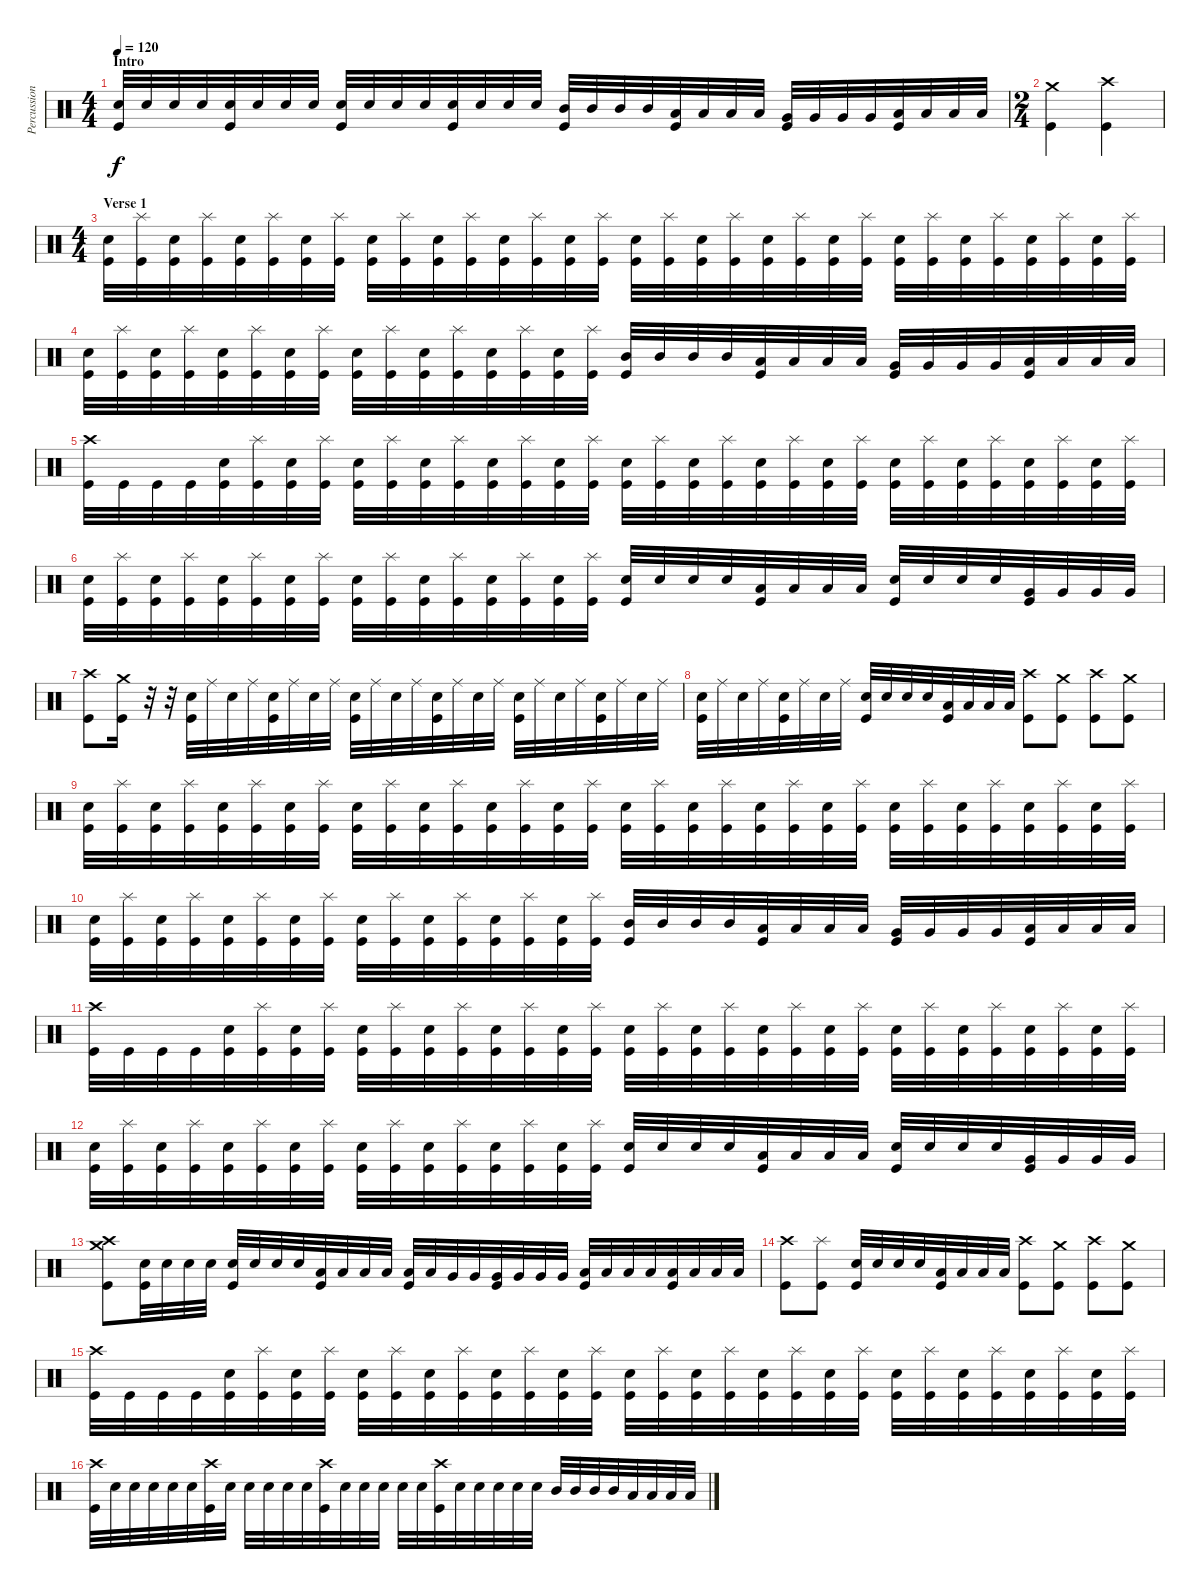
\track ("Percussion" "Percussion") {instrument percussion}
\staff {score}
\articulation defaults
\ts (4 4)
\section ("" "Intro")
\tempo 120
\clef neutral
\ks c
("Electric Snare (hit)" "Kick (hit)").32{dy f} "Electric Snare (hit)".32 "Electric Snare (hit)".32 "Electric Snare (hit)".32 ("Electric Snare (hit)" "Kick (hit)").32 "Electric Snare (hit)".32 "Electric Snare (hit)".32 "Electric Snare (hit)".32 ("Electric Snare (hit)" "Kick (hit)").32 "Electric Snare (hit)".32 "Electric Snare (hit)".32 "Electric Snare (hit)".32 ("Electric Snare (hit)" "Kick (hit)").32 "Electric Snare (hit)".32 "Electric Snare (hit)".32 "Electric Snare (hit)".32 ("Mid Tom (hit)" "Kick (hit)").32 "Mid Tom (hit)".32 "Mid Tom (hit)".32 "Mid Tom (hit)".32 ("Low Tom (hit)" "Kick (hit)").32 "Low Tom (hit)".32 "Low Tom (hit)".32 "Low Tom (hit)".32 ("Very Low Tom (hit)" "Kick (hit)").32 "Very Low Tom (hit)".32 "Very Low Tom (hit)".32 "Very Low Tom (hit)".32 ("Low Floor Tom (hit)" "Kick (hit)").32 "Low Floor Tom (hit)".32 "Low Floor Tom (hit)".32 "Low Floor Tom (hit)".32 |
\ts (2 4)
("Crash medium (hit)" "Kick (hit)").4 ("Crash high (hit)" "Kick (hit)").4 |
\ts (4 4)
\section ("" "Verse 1")
("Electric Snare (hit)" "Kick (hit)").32 ("Splash (hit)" "Kick (hit)").32 ("Electric Snare (hit)" "Kick (hit)").32 ("Splash (hit)" "Kick (hit)").32 ("Electric Snare (hit)" "Kick (hit)").32 ("Splash (hit)" "Kick (hit)").32 ("Electric Snare (hit)" "Kick (hit)").32 ("Splash (hit)" "Kick (hit)").32 ("Electric Snare (hit)" "Kick (hit)").32 ("Splash (hit)" "Kick (hit)").32 ("Electric Snare (hit)" "Kick (hit)").32 ("Splash (hit)" "Kick (hit)").32 ("Electric Snare (hit)" "Kick (hit)").32 ("Splash (hit)" "Kick (hit)").32 ("Electric Snare (hit)" "Kick (hit)").32 ("Splash (hit)" "Kick (hit)").32 ("Electric Snare (hit)" "Kick (hit)").32 ("Splash (hit)" "Kick (hit)").32 ("Electric Snare (hit)" "Kick (hit)").32 ("Splash (hit)" "Kick (hit)").32 ("Electric Snare (hit)" "Kick (hit)").32 ("Splash (hit)" "Kick (hit)").32 ("Electric Snare (hit)" "Kick (hit)").32 ("Splash (hit)" "Kick (hit)").32 ("Electric Snare (hit)" "Kick (hit)").32 ("Splash (hit)" "Kick (hit)").32 ("Electric Snare (hit)" "Kick (hit)").32 ("Splash (hit)" "Kick (hit)").32 ("Electric Snare (hit)" "Kick (hit)").32 ("Splash (hit)" "Kick (hit)").32 ("Electric Snare (hit)" "Kick (hit)").32 ("Splash (hit)" "Kick (hit)").32 |
("Electric Snare (hit)" "Kick (hit)").32 ("Splash (hit)" "Kick (hit)").32 ("Electric Snare (hit)" "Kick (hit)").32 ("Splash (hit)" "Kick (hit)").32 ("Electric Snare (hit)" "Kick (hit)").32 ("Splash (hit)" "Kick (hit)").32 ("Electric Snare (hit)" "Kick (hit)").32 ("Splash (hit)" "Kick (hit)").32 ("Electric Snare (hit)" "Kick (hit)").32 ("Splash (hit)" "Kick (hit)").32 ("Electric Snare (hit)" "Kick (hit)").32 ("Splash (hit)" "Kick (hit)").32 ("Electric Snare (hit)" "Kick (hit)").32 ("Splash (hit)" "Kick (hit)").32 ("Electric Snare (hit)" "Kick (hit)").32 ("Splash (hit)" "Kick (hit)").32 ("Mid Tom (hit)" "Kick (hit)").32 "Mid Tom (hit)".32 "Mid Tom (hit)".32 "Mid Tom (hit)".32 ("Low Tom (hit)" "Kick (hit)").32 "Low Tom (hit)".32 "Low Tom (hit)".32 "Low Tom (hit)".32 ("Very Low Tom (hit)" "Kick (hit)").32 "Very Low Tom (hit)".32 "Very Low Tom (hit)".32 "Very Low Tom (hit)".32 ("Low Floor Tom (hit)" "Kick (hit)").32 "Low Floor Tom (hit)".32 "Low Floor Tom (hit)".32 "Low Floor Tom (hit)".32 |
("Crash high (hit)" "Kick (hit)").32 "Kick (hit)".32 "Kick (hit)".32 "Kick (hit)".32 ("Electric Snare (hit)" "Kick (hit)").32 ("Splash (hit)" "Kick (hit)").32 ("Electric Snare (hit)" "Kick (hit)").32 ("Splash (hit)" "Kick (hit)").32 ("Electric Snare (hit)" "Kick (hit)").32 ("Splash (hit)" "Kick (hit)").32 ("Electric Snare (hit)" "Kick (hit)").32 ("Splash (hit)" "Kick (hit)").32 ("Electric Snare (hit)" "Kick (hit)").32 ("Splash (hit)" "Kick (hit)").32 ("Electric Snare (hit)" "Kick (hit)").32 ("Splash (hit)" "Kick (hit)").32 ("Electric Snare (hit)" "Kick (hit)").32 ("Splash (hit)" "Kick (hit)").32 ("Electric Snare (hit)" "Kick (hit)").32 ("Splash (hit)" "Kick (hit)").32 ("Electric Snare (hit)" "Kick (hit)").32 ("Splash (hit)" "Kick (hit)").32 ("Electric Snare (hit)" "Kick (hit)").32 ("Splash (hit)" "Kick (hit)").32 ("Electric Snare (hit)" "Kick (hit)").32 ("Splash (hit)" "Kick (hit)").32 ("Electric Snare (hit)" "Kick (hit)").32 ("Splash (hit)" "Kick (hit)").32 ("Electric Snare (hit)" "Kick (hit)").32 ("Splash (hit)" "Kick (hit)").32 ("Electric Snare (hit)" "Kick (hit)").32 ("Splash (hit)" "Kick (hit)").32 |
("Electric Snare (hit)" "Kick (hit)").32 ("Splash (hit)" "Kick (hit)").32 ("Electric Snare (hit)" "Kick (hit)").32 ("Splash (hit)" "Kick (hit)").32 ("Electric Snare (hit)" "Kick (hit)").32 ("Splash (hit)" "Kick (hit)").32 ("Electric Snare (hit)" "Kick (hit)").32 ("Splash (hit)" "Kick (hit)").32 ("Electric Snare (hit)" "Kick (hit)").32 ("Splash (hit)" "Kick (hit)").32 ("Electric Snare (hit)" "Kick (hit)").32 ("Splash (hit)" "Kick (hit)").32 ("Electric Snare (hit)" "Kick (hit)").32 ("Splash (hit)" "Kick (hit)").32 ("Electric Snare (hit)" "Kick (hit)").32 ("Splash (hit)" "Kick (hit)").32 ("Electric Snare (hit)" "Kick (hit)").32 "Electric Snare (hit)".32 "Electric Snare (hit)".32 "Electric Snare (hit)".32 ("Low Tom (hit)" "Kick (hit)").32 "Low Tom (hit)".32 "Low Tom (hit)".32 "Low Tom (hit)".32 ("Electric Snare (hit)" "Kick (hit)").32 "Electric Snare (hit)".32 "Electric Snare (hit)".32 "Electric Snare (hit)".32 ("Very Low Tom (hit)" "Kick (hit)").32 "Very Low Tom (hit)".32 "Very Low Tom (hit)".32 "Very Low Tom (hit)".32 |
("Crash high (hit)" "Kick (hit)").8 ("Crash medium (hit)" "Kick (hit)").16 r.32 r.32 ("Electric Snare (hit)" "Kick (hit)").32 "Ride (middle)".32 "Electric Snare (hit)".32 "Ride (middle)".32 ("Electric Snare (hit)" "Kick (hit)").32 "Ride (middle)".32 "Electric Snare (hit)".32 "Ride (middle)".32 ("Electric Snare (hit)" "Kick (hit)").32 "Ride (middle)".32 "Electric Snare (hit)".32 "Ride (middle)".32 ("Electric Snare (hit)" "Kick (hit)").32 "Ride (middle)".32 "Electric Snare (hit)".32 "Ride (middle)".32 ("Electric Snare (hit)" "Kick (hit)").32 "Ride (middle)".32 "Electric Snare (hit)".32 "Ride (middle)".32 ("Electric Snare (hit)" "Kick (hit)").32 "Ride (middle)".32 "Electric Snare (hit)".32 "Ride (middle)".32 |
("Electric Snare (hit)" "Kick (hit)").32 "Ride (middle)".32 "Electric Snare (hit)".32 "Ride (middle)".32 ("Electric Snare (hit)" "Kick (hit)").32 "Ride (middle)".32 "Electric Snare (hit)".32 "Ride (middle)".32 ("Electric Snare (hit)" "Kick (hit)").32 "Electric Snare (hit)".32 "Electric Snare (hit)".32 "Electric Snare (hit)".32 ("Low Tom (hit)" "Kick (hit)").32 "Low Tom (hit)".32 "Low Tom (hit)".32 "Low Tom (hit)".32 ("Crash high (hit)" "Kick (hit)").8 ("Crash medium (hit)" "Kick (hit)").8 ("Crash high (hit)" "Kick (hit)").8 ("Crash medium (hit)" "Kick (hit)").8 |
("Electric Snare (hit)" "Kick (hit)").32 ("Splash (hit)" "Kick (hit)").32 ("Electric Snare (hit)" "Kick (hit)").32 ("Splash (hit)" "Kick (hit)").32 ("Electric Snare (hit)" "Kick (hit)").32 ("Splash (hit)" "Kick (hit)").32 ("Electric Snare (hit)" "Kick (hit)").32 ("Splash (hit)" "Kick (hit)").32 ("Electric Snare (hit)" "Kick (hit)").32 ("Splash (hit)" "Kick (hit)").32 ("Electric Snare (hit)" "Kick (hit)").32 ("Splash (hit)" "Kick (hit)").32 ("Electric Snare (hit)" "Kick (hit)").32 ("Splash (hit)" "Kick (hit)").32 ("Electric Snare (hit)" "Kick (hit)").32 ("Splash (hit)" "Kick (hit)").32 ("Electric Snare (hit)" "Kick (hit)").32 ("Splash (hit)" "Kick (hit)").32 ("Electric Snare (hit)" "Kick (hit)").32 ("Splash (hit)" "Kick (hit)").32 ("Electric Snare (hit)" "Kick (hit)").32 ("Splash (hit)" "Kick (hit)").32 ("Electric Snare (hit)" "Kick (hit)").32 ("Splash (hit)" "Kick (hit)").32 ("Electric Snare (hit)" "Kick (hit)").32 ("Splash (hit)" "Kick (hit)").32 ("Electric Snare (hit)" "Kick (hit)").32 ("Splash (hit)" "Kick (hit)").32 ("Electric Snare (hit)" "Kick (hit)").32 ("Splash (hit)" "Kick (hit)").32 ("Electric Snare (hit)" "Kick (hit)").32 ("Splash (hit)" "Kick (hit)").32 |
("Electric Snare (hit)" "Kick (hit)").32 ("Splash (hit)" "Kick (hit)").32 ("Electric Snare (hit)" "Kick (hit)").32 ("Splash (hit)" "Kick (hit)").32 ("Electric Snare (hit)" "Kick (hit)").32 ("Splash (hit)" "Kick (hit)").32 ("Electric Snare (hit)" "Kick (hit)").32 ("Splash (hit)" "Kick (hit)").32 ("Electric Snare (hit)" "Kick (hit)").32 ("Splash (hit)" "Kick (hit)").32 ("Electric Snare (hit)" "Kick (hit)").32 ("Splash (hit)" "Kick (hit)").32 ("Electric Snare (hit)" "Kick (hit)").32 ("Splash (hit)" "Kick (hit)").32 ("Electric Snare (hit)" "Kick (hit)").32 ("Splash (hit)" "Kick (hit)").32 ("Mid Tom (hit)" "Kick (hit)").32 "Mid Tom (hit)".32 "Mid Tom (hit)".32 "Mid Tom (hit)".32 ("Low Tom (hit)" "Kick (hit)").32 "Low Tom (hit)".32 "Low Tom (hit)".32 "Low Tom (hit)".32 ("Very Low Tom (hit)" "Kick (hit)").32 "Very Low Tom (hit)".32 "Very Low Tom (hit)".32 "Very Low Tom (hit)".32 ("Low Floor Tom (hit)" "Kick (hit)").32 "Low Floor Tom (hit)".32 "Low Floor Tom (hit)".32 "Low Floor Tom (hit)".32 |
("Crash high (hit)" "Kick (hit)").32 "Kick (hit)".32 "Kick (hit)".32 "Kick (hit)".32 ("Electric Snare (hit)" "Kick (hit)").32 ("Splash (hit)" "Kick (hit)").32 ("Electric Snare (hit)" "Kick (hit)").32 ("Splash (hit)" "Kick (hit)").32 ("Electric Snare (hit)" "Kick (hit)").32 ("Splash (hit)" "Kick (hit)").32 ("Electric Snare (hit)" "Kick (hit)").32 ("Splash (hit)" "Kick (hit)").32 ("Electric Snare (hit)" "Kick (hit)").32 ("Splash (hit)" "Kick (hit)").32 ("Electric Snare (hit)" "Kick (hit)").32 ("Splash (hit)" "Kick (hit)").32 ("Electric Snare (hit)" "Kick (hit)").32 ("Splash (hit)" "Kick (hit)").32 ("Electric Snare (hit)" "Kick (hit)").32 ("Splash (hit)" "Kick (hit)").32 ("Electric Snare (hit)" "Kick (hit)").32 ("Splash (hit)" "Kick (hit)").32 ("Electric Snare (hit)" "Kick (hit)").32 ("Splash (hit)" "Kick (hit)").32 ("Electric Snare (hit)" "Kick (hit)").32 ("Splash (hit)" "Kick (hit)").32 ("Electric Snare (hit)" "Kick (hit)").32 ("Splash (hit)" "Kick (hit)").32 ("Electric Snare (hit)" "Kick (hit)").32 ("Splash (hit)" "Kick (hit)").32 ("Electric Snare (hit)" "Kick (hit)").32 ("Splash (hit)" "Kick (hit)").32 |
("Electric Snare (hit)" "Kick (hit)").32 ("Splash (hit)" "Kick (hit)").32 ("Electric Snare (hit)" "Kick (hit)").32 ("Splash (hit)" "Kick (hit)").32 ("Electric Snare (hit)" "Kick (hit)").32 ("Splash (hit)" "Kick (hit)").32 ("Electric Snare (hit)" "Kick (hit)").32 ("Splash (hit)" "Kick (hit)").32 ("Electric Snare (hit)" "Kick (hit)").32 ("Splash (hit)" "Kick (hit)").32 ("Electric Snare (hit)" "Kick (hit)").32 ("Splash (hit)" "Kick (hit)").32 ("Electric Snare (hit)" "Kick (hit)").32 ("Splash (hit)" "Kick (hit)").32 ("Electric Snare (hit)" "Kick (hit)").32 ("Splash (hit)" "Kick (hit)").32 ("Electric Snare (hit)" "Kick (hit)").32 "Electric Snare (hit)".32 "Electric Snare (hit)".32 "Electric Snare (hit)".32 ("Low Tom (hit)" "Kick (hit)").32 "Low Tom (hit)".32 "Low Tom (hit)".32 "Low Tom (hit)".32 ("Electric Snare (hit)" "Kick (hit)").32 "Electric Snare (hit)".32 "Electric Snare (hit)".32 "Electric Snare (hit)".32 ("Very Low Tom (hit)" "Kick (hit)").32 "Very Low Tom (hit)".32 "Very Low Tom (hit)".32 "Very Low Tom (hit)".32 |
("Crash high (hit)" "Crash medium (hit)" "Kick (hit)").8 ("Electric Snare (hit)" "Kick (hit)").32 "Electric Snare (hit)".32 "Electric Snare (hit)".32 "Electric Snare (hit)".32 ("Electric Snare (hit)" "Kick (hit)").32 "Electric Snare (hit)".32 "Electric Snare (hit)".32 "Electric Snare (hit)".32 ("Low Tom (hit)" "Kick (hit)").32 "Low Tom (hit)".32 "Low Tom (hit)".32 "Low Tom (hit)".32 ("Low Tom (hit)" "Kick (hit)").32 "Low Tom (hit)".32 "Very Low Tom (hit)".32 "Very Low Tom (hit)".32 ("Very Low Tom (hit)" "Kick (hit)").32 "Very Low Tom (hit)".32 "Very Low Tom (hit)".32 "Very Low Tom (hit)".32 ("Low Floor Tom (hit)" "Kick (hit)").32 "Low Floor Tom (hit)".32 "Low Floor Tom (hit)".32 "Low Floor Tom (hit)".32 ("Low Floor Tom (hit)" "Kick (hit)").32 "Low Floor Tom (hit)".32 "Low Floor Tom (hit)".32 "Low Floor Tom (hit)".32 |
("Crash high (hit)" "Kick (hit)").8 ("Splash (hit)" "Kick (hit)").8 ("Electric Snare (hit)" "Kick (hit)").32 "Electric Snare (hit)".32 "Electric Snare (hit)".32 "Electric Snare (hit)".32 ("Low Tom (hit)" "Kick (hit)").32 "Low Tom (hit)".32 "Low Tom (hit)".32 "Low Tom (hit)".32 ("Crash high (hit)" "Kick (hit)").8 ("Crash medium (hit)" "Kick (hit)").8 ("Crash high (hit)" "Kick (hit)").8 ("Crash medium (hit)" "Kick (hit)").8 |
("Crash high (hit)" "Kick (hit)").32 "Kick (hit)".32 "Kick (hit)".32 "Kick (hit)".32 ("Electric Snare (hit)" "Kick (hit)").32 ("Splash (hit)" "Kick (hit)").32 ("Electric Snare (hit)" "Kick (hit)").32 ("Splash (hit)" "Kick (hit)").32 ("Electric Snare (hit)" "Kick (hit)").32 ("Splash (hit)" "Kick (hit)").32 ("Electric Snare (hit)" "Kick (hit)").32 ("Splash (hit)" "Kick (hit)").32 ("Electric Snare (hit)" "Kick (hit)").32 ("Splash (hit)" "Kick (hit)").32 ("Electric Snare (hit)" "Kick (hit)").32 ("Splash (hit)" "Kick (hit)").32 ("Electric Snare (hit)" "Kick (hit)").32 ("Splash (hit)" "Kick (hit)").32 ("Electric Snare (hit)" "Kick (hit)").32 ("Splash (hit)" "Kick (hit)").32 ("Electric Snare (hit)" "Kick (hit)").32 ("Splash (hit)" "Kick (hit)").32 ("Electric Snare (hit)" "Kick (hit)").32 ("Splash (hit)" "Kick (hit)").32 ("Electric Snare (hit)" "Kick (hit)").32 ("Splash (hit)" "Kick (hit)").32 ("Electric Snare (hit)" "Kick (hit)").32 ("Splash (hit)" "Kick (hit)").32 ("Electric Snare (hit)" "Kick (hit)").32 ("Splash (hit)" "Kick (hit)").32 ("Electric Snare (hit)" "Kick (hit)").32 ("Splash (hit)" "Kick (hit)").32 |
("Crash high (hit)" "Kick (hit)").32 "Electric Snare (hit)".32 "Electric Snare (hit)".32 "Electric Snare (hit)".32 "Electric Snare (hit)".32 "Electric Snare (hit)".32 ("Crash high (hit)" "Kick (hit)").32 "Electric Snare (hit)".32 "Electric Snare (hit)".32 "Electric Snare (hit)".32 "Electric Snare (hit)".32 "Electric Snare (hit)".32 ("Crash high (hit)" "Kick (hit)").32 "Electric Snare (hit)".32 "Electric Snare (hit)".32 "Electric Snare (hit)".32 "Electric Snare (hit)".32 "Electric Snare (hit)".32 ("Crash high (hit)" "Kick (hit)").32 "Electric Snare (hit)".32 "Electric Snare (hit)".32 "Electric Snare (hit)".32 "Electric Snare (hit)".32 "Electric Snare (hit)".32 "Mid Tom (hit)".32 "Mid Tom (hit)".32 "Mid Tom (hit)".32 "Mid Tom (hit)".32 "Low Tom (hit)".32 "Low Tom (hit)".32 "Low Tom (hit)".32 "Low Tom (hit)".32
